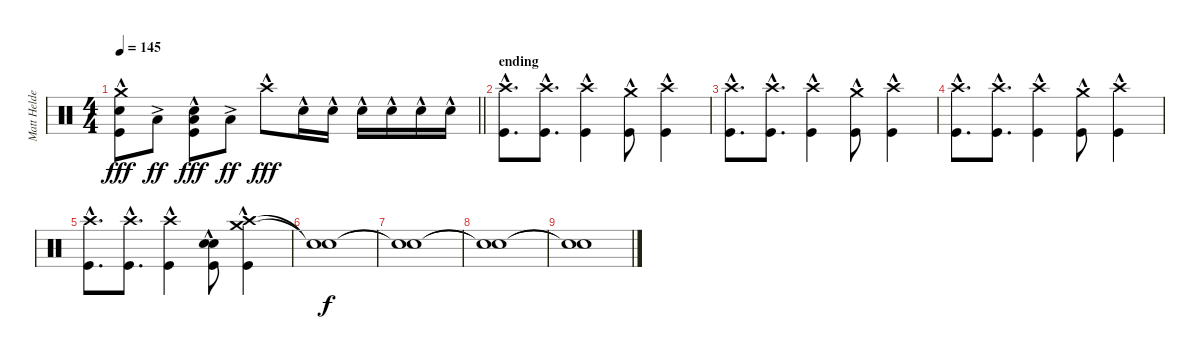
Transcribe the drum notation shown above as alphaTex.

\track ("Matt Helders - Drums" "Matt Helde") {instrument percussion}
\staff {score}
\articulation defaults
\ts (4 4)
\tempo 145
\clef neutral
\barLineRight lightlight
\ks c
("Crash medium (hit)"{hac} "Snare (hit) 2"{hac} "Kick (hit)"{hac}).8{dy fff} "Low Floor Tom (hit)"{ac}.8{dy ff} ("Snare (hit) 2"{hac} "Low Floor Tom (hit)"{hac} "Kick (hit)"{hac}).8{dy fff} "Low Floor Tom (hit)"{ac}.8{dy ff} "Crash high (hit)"{hac}.8{dy fff} "Snare (hit) 2"{hac}.16 "Snare (hit) 2"{hac}.16 "Snare (hit) 2"{hac}.16 "Snare (hit) 2"{hac}.16 "Snare (hit) 2"{hac}.16 "Snare (hit) 2"{hac}.16 |
\section ("" "ending")
("Crash high (hit)"{hac} "Kick (hit)"{hac}).8{d} ("Crash high (hit)"{hac} "Kick (hit)"{hac}).8{d} ("Crash high (hit)"{hac} "Kick (hit)"{hac}).4 ("Crash medium (hit)"{hac} "Kick (hit)"{hac}).8 ("Crash high (hit)"{hac} "Kick (hit)"{hac}).4 |
("Crash high (hit)"{hac} "Kick (hit)"{hac}).8{d} ("Crash high (hit)"{hac} "Kick (hit)"{hac}).8{d} ("Crash high (hit)"{hac} "Kick (hit)"{hac}).4 ("Crash medium (hit)"{hac} "Kick (hit)"{hac}).8 ("Crash high (hit)"{hac} "Kick (hit)"{hac}).4 |
("Crash high (hit)"{hac} "Kick (hit)"{hac}).8{d} ("Crash high (hit)"{hac} "Kick (hit)"{hac}).8{d} ("Crash high (hit)"{hac} "Kick (hit)"{hac}).4 ("Crash medium (hit)"{hac} "Kick (hit)"{hac}).8 ("Crash high (hit)"{hac} "Kick (hit)"{hac}).4 |
("Crash high (hit)"{hac} "Kick (hit)"{hac}).8{d} ("Crash high (hit)"{hac} "Kick (hit)"{hac}).8{d} ("Crash high (hit)"{hac} "Kick (hit)"{hac}).4 ("Electric Snare (hit)"{hac} "Snare (hit) 2"{hac} "Kick (hit)"{hac}).8 ("Crash high (hit)"{hac} "Crash medium (hit)" "Kick (hit)"{hac}).4 |
("Snare (hit)"{t} "Snare (hit)"{t}).1{dy f} |
("Snare (hit)"{t} "Snare (hit)"{t}).1 |
("Snare (hit)"{t} "Snare (hit)"{t}).1 |
("Snare (hit)"{t} "Snare (hit)"{t}).1
